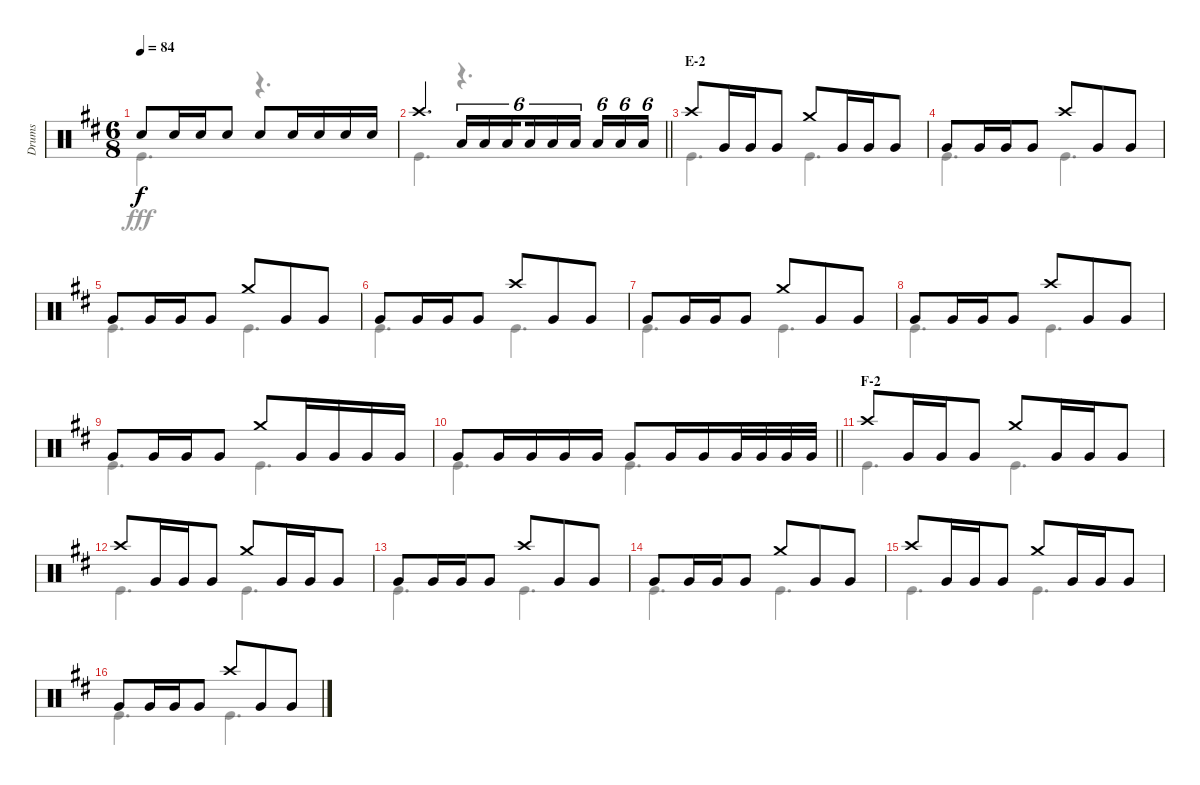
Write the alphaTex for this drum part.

\track ("Drums" "Drums") {instrument percussion}
\staff {score}
\articulation defaults
\voice
\ts (6 8)
\tempo 84
\clef neutral
\ks d "Snare (hit) 2".8{dy f} "Snare (hit) 2".16 "Snare (hit) 2".16 "Snare (hit) 2".8 "Snare (hit) 2".8 "Snare (hit) 2".16 "Snare (hit) 2".16 "Snare (hit) 2".16 "Snare (hit) 2".16
|
\barLineRight lightlight "Crash high (hit)".4{d} "Low Tom (hit)".16{tu (6 4)} "Low Tom (hit)".16{tu (6 4)} "Low Tom (hit)".16{tu (6 4) beam splitsecondary} "Low Tom (hit)".16{tu (6 4)} "Low Tom (hit)".16{tu (6 4)} "Low Tom (hit)".16{tu (6 4) beam splitsecondary} "Low Tom (hit)".16{tu (6 4)} "Low Tom (hit)".16{tu (6 4)} "Low Tom (hit)".16{tu (6 4)}
|
\section ("" "E-2")
"Crash high (hit)".8 "Very Low Tom (hit)".16 "Very Low Tom (hit)".16 "Very Low Tom (hit)".8 "Crash medium (hit)".8 "Very Low Tom (hit)".16 "Very Low Tom (hit)".16 "Very Low Tom (hit)".8 |
"Very Low Tom (hit)".8 "Very Low Tom (hit)".16 "Very Low Tom (hit)".16 "Very Low Tom (hit)".8 "Crash high (hit)".8 "Very Low Tom (hit)".8 "Very Low Tom (hit)".8 |
"Very Low Tom (hit)".8 "Very Low Tom (hit)".16 "Very Low Tom (hit)".16 "Very Low Tom (hit)".8 "Crash medium (hit)".8 "Very Low Tom (hit)".8 "Very Low Tom (hit)".8 |
"Very Low Tom (hit)".8 "Very Low Tom (hit)".16 "Very Low Tom (hit)".16 "Very Low Tom (hit)".8 "Crash high (hit)".8 "Very Low Tom (hit)".8 "Very Low Tom (hit)".8 |
"Very Low Tom (hit)".8 "Very Low Tom (hit)".16 "Very Low Tom (hit)".16 "Very Low Tom (hit)".8 "Crash medium (hit)".8 "Very Low Tom (hit)".8 "Very Low Tom (hit)".8 |
"Very Low Tom (hit)".8 "Very Low Tom (hit)".16 "Very Low Tom (hit)".16 "Very Low Tom (hit)".8 "Crash high (hit)".8 "Very Low Tom (hit)".8 "Very Low Tom (hit)".8 |
"Very Low Tom (hit)".8 "Very Low Tom (hit)".16 "Very Low Tom (hit)".16 "Very Low Tom (hit)".8 "Crash medium (hit)".8 "Very Low Tom (hit)".16 "Very Low Tom (hit)".16 "Very Low Tom (hit)".16 "Very Low Tom (hit)".16 |
\barLineRight lightlight "Very Low Tom (hit)".8 "Very Low Tom (hit)".16 "Very Low Tom (hit)".16 "Very Low Tom (hit)".16 "Very Low Tom (hit)".16 "Very Low Tom (hit)".8 "Very Low Tom (hit)".16 "Very Low Tom (hit)".16 "Very Low Tom (hit)".32 "Very Low Tom (hit)".32 "Very Low Tom (hit)".32 "Very Low Tom (hit)".32
|
\section ("" "F-2")
"Crash high (hit)".8 "Very Low Tom (hit)".16 "Very Low Tom (hit)".16 "Very Low Tom (hit)".8 "Crash medium (hit)".8 "Very Low Tom (hit)".16 "Very Low Tom (hit)".16 "Very Low Tom (hit)".8 |
"Crash high (hit)".8 "Very Low Tom (hit)".16 "Very Low Tom (hit)".16 "Very Low Tom (hit)".8 "Crash medium (hit)".8 "Very Low Tom (hit)".16 "Very Low Tom (hit)".16 "Very Low Tom (hit)".8 |
"Very Low Tom (hit)".8 "Very Low Tom (hit)".16 "Very Low Tom (hit)".16 "Very Low Tom (hit)".8 "Crash high (hit)".8 "Very Low Tom (hit)".8 "Very Low Tom (hit)".8 |
"Very Low Tom (hit)".8 "Very Low Tom (hit)".16 "Very Low Tom (hit)".16 "Very Low Tom (hit)".8 "Crash medium (hit)".8 "Very Low Tom (hit)".8 "Very Low Tom (hit)".8 |
"Crash high (hit)".8 "Very Low Tom (hit)".16 "Very Low Tom (hit)".16 "Very Low Tom (hit)".8 "Crash medium (hit)".8 "Very Low Tom (hit)".16 "Very Low Tom (hit)".16 "Very Low Tom (hit)".8 |
"Very Low Tom (hit)".8 "Very Low Tom (hit)".16 "Very Low Tom (hit)".16 "Very Low Tom (hit)".8 "Crash high (hit)".8 "Very Low Tom (hit)".8 "Very Low Tom (hit)".8
\voice
\clef neutral
\ottava regular
\simile none
\ks d "Kick (hit)".4{d dy fff}
r.4{d} |
\barLineRight lightlight "Kick (hit)".4{d}
r.4{d} |
"Kick (hit)".4{d} "Kick (hit)".4{d} |
"Kick (hit)".4{d} "Kick (hit)".4{d} |
"Kick (hit)".4{d} "Kick (hit)".4{d} |
"Kick (hit)".4{d} "Kick (hit)".4{d} |
"Kick (hit)".4{d} "Kick (hit)".4{d} |
"Kick (hit)".4{d} "Kick (hit)".4{d} |
"Kick (hit)".4{d} "Kick (hit)".4{d} |
\barLineRight lightlight "Kick (hit)".4{d} "Kick (hit)".4{d}
|
"Kick (hit)".4{d} "Kick (hit)".4{d} |
"Kick (hit)".4{d} "Kick (hit)".4{d} |
"Kick (hit)".4{d} "Kick (hit)".4{d} |
"Kick (hit)".4{d} "Kick (hit)".4{d} |
"Kick (hit)".4{d} "Kick (hit)".4{d} |
"Kick (hit)".4{d} "Kick (hit)".4{d}
